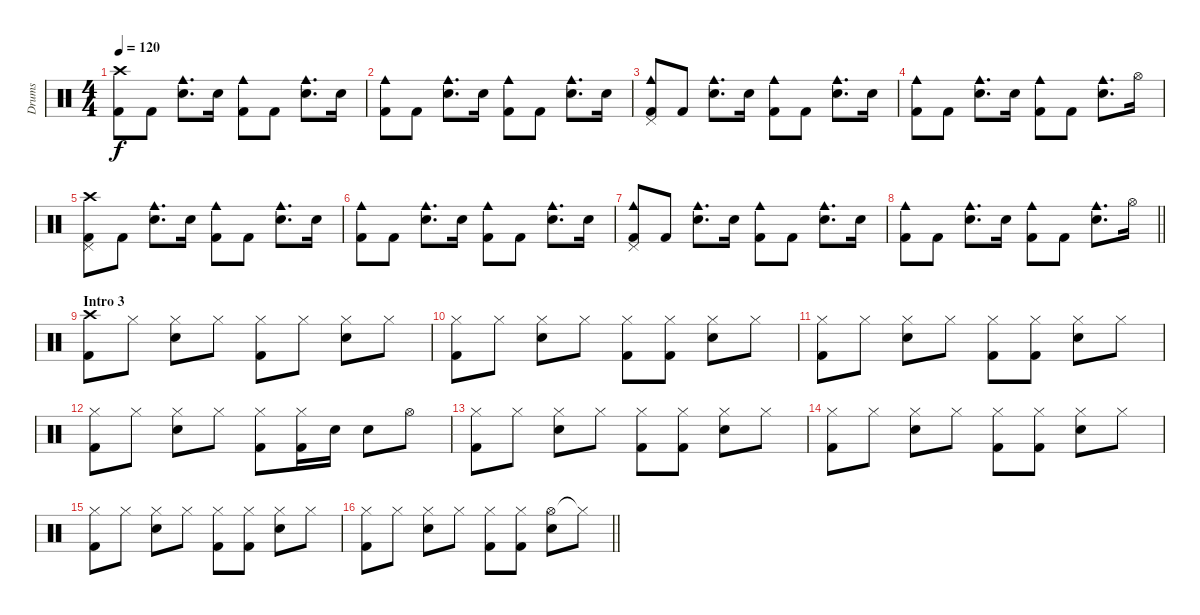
\track ("Drums" "Drums") {instrument percussion}
\staff {score}
\articulation defaults
\ts (4 4)
\tempo 120
\clef neutral
\ks c
("Crash high (hit)" "Kick (hit) 2").8{dy f} "Kick (hit) 2".8 ("Cowbell medium (hit)" "Electric Snare (hit)").8{d} "Electric Snare (hit)".16 ("Cowbell medium (hit)" "Kick (hit) 2").8 "Kick (hit) 2".8 ("Cowbell medium (hit)" "Electric Snare (hit)").8{d} "Electric Snare (hit)".16 |
("Cowbell medium (hit)" "Kick (hit) 2").8 "Kick (hit) 2".8 ("Cowbell medium (hit)" "Electric Snare (hit)").8{d} "Electric Snare (hit)".16 ("Cowbell medium (hit)" "Kick (hit) 2").8 "Kick (hit) 2".8 ("Cowbell medium (hit)" "Electric Snare (hit)").8{d} "Electric Snare (hit)".16 |
("Cowbell medium (hit)" "Pedal Hi-Hat (hit)" "Kick (hit) 2").8 "Kick (hit) 2".8 ("Cowbell medium (hit)" "Electric Snare (hit)").8{d} "Electric Snare (hit)".16 ("Cowbell medium (hit)" "Kick (hit) 2").8 "Kick (hit) 2".8 ("Cowbell medium (hit)" "Electric Snare (hit)").8{d} "Electric Snare (hit)".16 |
("Cowbell medium (hit)" "Kick (hit) 2").8 "Kick (hit) 2".8 ("Cowbell medium (hit)" "Electric Snare (hit)").8{d} "Electric Snare (hit)".16 ("Cowbell medium (hit)" "Kick (hit) 2").8 "Kick (hit) 2".8 ("Cowbell medium (hit)" "Electric Snare (hit)").8{d} "Hi-Hat (open)".16 |
("Crash high (hit)" "Pedal Hi-Hat (hit)" "Kick (hit) 2").8 "Kick (hit) 2".8 ("Cowbell medium (hit)" "Electric Snare (hit)").8{d} "Electric Snare (hit)".16 ("Cowbell medium (hit)" "Kick (hit) 2").8 "Kick (hit) 2".8 ("Cowbell medium (hit)" "Electric Snare (hit)").8{d} "Electric Snare (hit)".16 |
("Cowbell medium (hit)" "Kick (hit) 2").8 "Kick (hit) 2".8 ("Cowbell medium (hit)" "Electric Snare (hit)").8{d} "Electric Snare (hit)".16 ("Cowbell medium (hit)" "Kick (hit) 2").8 "Kick (hit) 2".8 ("Cowbell medium (hit)" "Electric Snare (hit)").8{d} "Electric Snare (hit)".16 |
("Cowbell medium (hit)" "Pedal Hi-Hat (hit)" "Kick (hit) 2").8 "Kick (hit) 2".8 ("Cowbell medium (hit)" "Electric Snare (hit)").8{d} "Electric Snare (hit)".16 ("Cowbell medium (hit)" "Kick (hit) 2").8 "Kick (hit) 2".8 ("Cowbell medium (hit)" "Electric Snare (hit)").8{d} "Electric Snare (hit)".16 |
\barLineRight lightlight
("Cowbell medium (hit)" "Kick (hit) 2").8 "Kick (hit) 2".8 ("Cowbell medium (hit)" "Electric Snare (hit)").8{d} "Electric Snare (hit)".16 ("Cowbell medium (hit)" "Kick (hit) 2").8 "Kick (hit) 2".8 ("Cowbell medium (hit)" "Electric Snare (hit)").8{d} "Hi-Hat (open)".16 |
\section ("" "Intro 3")
("Crash high (hit)" "Kick (hit) 2").8 "Hi-Hat (closed)".8 ("Hi-Hat (closed)" "Electric Snare (hit)").8 "Hi-Hat (closed)".8 ("Hi-Hat (closed)" "Kick (hit) 2").8 "Hi-Hat (closed)".8 ("Hi-Hat (closed)" "Electric Snare (hit)").8 "Hi-Hat (closed)".8 |
("Hi-Hat (closed)" "Kick (hit) 2").8 "Hi-Hat (closed)".8 ("Hi-Hat (closed)" "Electric Snare (hit)").8 "Hi-Hat (closed)".8 ("Hi-Hat (closed)" "Kick (hit) 2").8 ("Hi-Hat (closed)" "Kick (hit) 2").8 ("Hi-Hat (closed)" "Electric Snare (hit)").8 "Hi-Hat (closed)".8 |
("Hi-Hat (closed)" "Kick (hit) 2").8 "Hi-Hat (closed)".8 ("Hi-Hat (closed)" "Electric Snare (hit)").8 "Hi-Hat (closed)".8 ("Hi-Hat (closed)" "Kick (hit) 2").8 ("Hi-Hat (closed)" "Kick (hit) 2").8 ("Hi-Hat (closed)" "Electric Snare (hit)").8 "Hi-Hat (closed)".8 |
("Hi-Hat (closed)" "Kick (hit) 2").8 "Hi-Hat (closed)".8 ("Hi-Hat (closed)" "Electric Snare (hit)").8 "Hi-Hat (closed)".8 ("Hi-Hat (closed)" "Kick (hit) 2").8 ("Hi-Hat (closed)" "Kick (hit) 2").16 "Electric Snare (hit)".16 "Electric Snare (hit)".8 "Hi-Hat (open)".8 |
("Hi-Hat (closed)" "Kick (hit) 2").8 "Hi-Hat (closed)".8 ("Hi-Hat (closed)" "Electric Snare (hit)").8 "Hi-Hat (closed)".8 ("Hi-Hat (closed)" "Kick (hit) 2").8 ("Hi-Hat (closed)" "Kick (hit) 2").8 ("Hi-Hat (closed)" "Electric Snare (hit)").8 "Hi-Hat (closed)".8 |
("Hi-Hat (closed)" "Kick (hit) 2").8 "Hi-Hat (closed)".8 ("Hi-Hat (closed)" "Electric Snare (hit)").8 "Hi-Hat (closed)".8 ("Hi-Hat (closed)" "Kick (hit) 2").8 ("Hi-Hat (closed)" "Kick (hit) 2").8 ("Hi-Hat (closed)" "Electric Snare (hit)").8 "Hi-Hat (closed)".8 |
("Hi-Hat (closed)" "Kick (hit) 2").8 "Hi-Hat (closed)".8 ("Hi-Hat (closed)" "Electric Snare (hit)").8 "Hi-Hat (closed)".8 ("Hi-Hat (closed)" "Kick (hit) 2").8 ("Hi-Hat (closed)" "Kick (hit) 2").8 ("Hi-Hat (closed)" "Electric Snare (hit)").8 "Hi-Hat (closed)".8 |
\barLineRight lightlight
("Hi-Hat (closed)" "Kick (hit) 2").8 "Hi-Hat (closed)".8 ("Hi-Hat (closed)" "Electric Snare (hit)").8 "Hi-Hat (closed)".8 ("Hi-Hat (closed)" "Kick (hit) 2").8 ("Hi-Hat (closed)" "Kick (hit) 2").8 ("Hi-Hat (open)" "Electric Snare (hit)").8 "Hi-Hat (closed)"{t}.8
